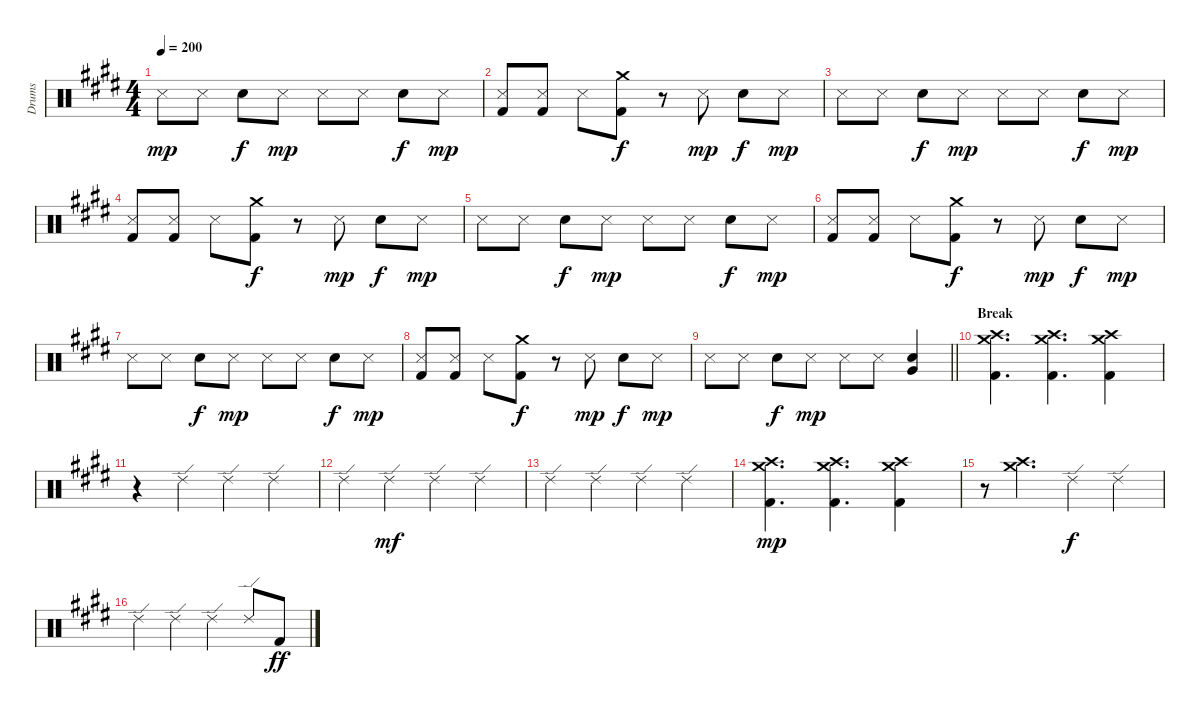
\track ("Drums" "Drums") {instrument percussion}
\staff {score}
\articulation defaults
\ts (4 4)
\tempo 200
\clef neutral
\ks c#minor "Snare (side stick) 3".8{dy mp} "Snare (side stick) 3".8 "Electric Snare (hit)".8{dy f} "Snare (side stick) 3".8{dy mp} "Snare (side stick) 3".8 "Snare (side stick) 3".8 "Electric Snare (hit)".8{dy f} "Snare (side stick) 3".8{dy mp}
|
("Snare (side stick) 3" "Kick (hit) 2").8 ("Snare (side stick) 3" "Kick (hit) 2").8 "Snare (side stick) 3".8 ("Crash medium (hit)" "Kick (hit) 2").8{dy f} r.8 "Snare (side stick) 3".8{dy mp} "Electric Snare (hit)".8{dy f} "Snare (side stick) 3".8{dy mp} |
"Snare (side stick) 3".8 "Snare (side stick) 3".8 "Electric Snare (hit)".8{dy f} "Snare (side stick) 3".8{dy mp} "Snare (side stick) 3".8 "Snare (side stick) 3".8 "Electric Snare (hit)".8{dy f} "Snare (side stick) 3".8{dy mp} |
("Snare (side stick) 3" "Kick (hit) 2").8 ("Snare (side stick) 3" "Kick (hit) 2").8 "Snare (side stick) 3".8 ("Crash medium (hit)" "Kick (hit) 2").8{dy f} r.8 "Snare (side stick) 3".8{dy mp} "Electric Snare (hit)".8{dy f} "Snare (side stick) 3".8{dy mp} |
"Snare (side stick) 3".8 "Snare (side stick) 3".8 "Electric Snare (hit)".8{dy f} "Snare (side stick) 3".8{dy mp} "Snare (side stick) 3".8 "Snare (side stick) 3".8 "Electric Snare (hit)".8{dy f} "Snare (side stick) 3".8{dy mp} |
("Snare (side stick) 3" "Kick (hit) 2").8 ("Snare (side stick) 3" "Kick (hit) 2").8 "Snare (side stick) 3".8 ("Crash medium (hit)" "Kick (hit) 2").8{dy f} r.8 "Snare (side stick) 3".8{dy mp} "Electric Snare (hit)".8{dy f} "Snare (side stick) 3".8{dy mp} |
"Snare (side stick) 3".8 "Snare (side stick) 3".8 "Electric Snare (hit)".8{dy f} "Snare (side stick) 3".8{dy mp} "Snare (side stick) 3".8 "Snare (side stick) 3".8 "Electric Snare (hit)".8{dy f} "Snare (side stick) 3".8{dy mp} |
("Snare (side stick) 3" "Kick (hit) 2").8 ("Snare (side stick) 3" "Kick (hit) 2").8 "Snare (side stick) 3".8 ("Crash medium (hit)" "Kick (hit) 2").8{dy f} r.8 "Snare (side stick) 3".8{dy mp} "Electric Snare (hit)".8{dy f} "Snare (side stick) 3".8{dy mp} |
\barLineRight lightlight "Snare (side stick) 3".8 "Snare (side stick) 3".8 "Electric Snare (hit)".8{dy f} "Snare (side stick) 3".8{dy mp} "Snare (side stick) 3".8 "Snare (side stick) 3".8
("Electric Snare (hit)" "Very Low Tom (hit)").4 |
\section ("" "Break")
("Crash medium (hit)" "Crash high (hit)" "Kick (hit) 2").4{d} ("Crash high (hit)" "Crash medium (hit)" "Kick (hit) 2").4{d} ("Crash medium (hit)" "Crash high (hit)" "Kick (hit) 2").4 |
r.4 "Ride (edge) 2".4 "Ride (edge) 2".4 "Ride (edge) 2".4 |
"Ride (edge) 2".4 "Ride (edge) 2".4{dy mf} "Ride (edge) 2".4 "Ride (edge) 2".4 |
"Ride (edge) 2".4 "Ride (edge) 2".4 "Ride (edge) 2".4 "Ride (edge) 2".4 |
("Crash medium (hit)" "Crash high (hit)" "Kick (hit) 2").4{d dy mp} ("Crash high (hit)" "Crash medium (hit)" "Kick (hit) 2").4{d} ("Crash medium (hit)" "Crash high (hit)" "Kick (hit) 2").4 |
r.8 ("Crash high (hit)" "Crash medium (hit)").4{d} "Ride (edge) 2".4{dy f} "Ride (edge) 2".4 |
"Ride (edge) 2".4 "Ride (edge) 2".4 "Ride (edge) 2".4 "Ride (edge) 2".8 "Kick (hit) 2".8{dy ff}
